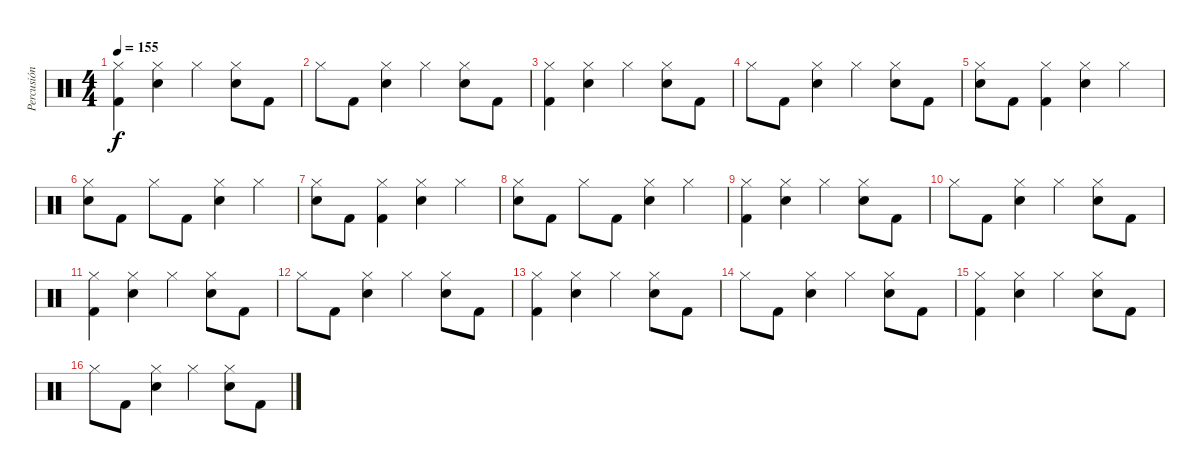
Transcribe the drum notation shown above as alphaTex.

\track ("Percusión" "Percusión") {instrument percussion}
\staff {score}
\articulation defaults
\ts (4 4)
\tempo 155
\clef neutral
\ks c
("Hi-Hat (closed)" "Kick (hit) 2").4{dy f} ("Hi-Hat (closed)" "Electric Snare (hit)").4 "Hi-Hat (closed)".4 ("Hi-Hat (closed)" "Electric Snare (hit)").8 "Kick (hit) 2".8 |
"Hi-Hat (closed)".8 "Kick (hit) 2".8 ("Hi-Hat (closed)" "Electric Snare (hit)").4 "Hi-Hat (closed)".4 ("Hi-Hat (closed)" "Electric Snare (hit)").8 "Kick (hit) 2".8 |
("Hi-Hat (closed)" "Kick (hit) 2").4 ("Hi-Hat (closed)" "Electric Snare (hit)").4 "Hi-Hat (closed)".4 ("Hi-Hat (closed)" "Electric Snare (hit)").8 "Kick (hit) 2".8 |
"Hi-Hat (closed)".8 "Kick (hit) 2".8 ("Hi-Hat (closed)" "Electric Snare (hit)").4 "Hi-Hat (closed)".4 ("Hi-Hat (closed)" "Electric Snare (hit)").8 "Kick (hit) 2".8 |
("Hi-Hat (closed)" "Electric Snare (hit)").8 "Kick (hit) 2".8 ("Hi-Hat (closed)" "Kick (hit) 2").4 ("Hi-Hat (closed)" "Electric Snare (hit)").4 "Hi-Hat (closed)".4 |
("Hi-Hat (closed)" "Electric Snare (hit)").8 "Kick (hit) 2".8 "Hi-Hat (closed)".8 "Kick (hit) 2".8 ("Hi-Hat (closed)" "Electric Snare (hit)").4 "Hi-Hat (closed)".4 |
("Hi-Hat (closed)" "Electric Snare (hit)").8 "Kick (hit) 2".8 ("Hi-Hat (closed)" "Kick (hit) 2").4 ("Hi-Hat (closed)" "Electric Snare (hit)").4 "Hi-Hat (closed)".4 |
("Hi-Hat (closed)" "Electric Snare (hit)").8 "Kick (hit) 2".8 "Hi-Hat (closed)".8 "Kick (hit) 2".8 ("Hi-Hat (closed)" "Electric Snare (hit)").4 "Hi-Hat (closed)".4 |
("Hi-Hat (closed)" "Kick (hit) 2").4 ("Hi-Hat (closed)" "Electric Snare (hit)").4 "Hi-Hat (closed)".4 ("Hi-Hat (closed)" "Electric Snare (hit)").8 "Kick (hit) 2".8 |
"Hi-Hat (closed)".8 "Kick (hit) 2".8 ("Hi-Hat (closed)" "Electric Snare (hit)").4 "Hi-Hat (closed)".4 ("Hi-Hat (closed)" "Electric Snare (hit)").8 "Kick (hit) 2".8 |
("Hi-Hat (closed)" "Kick (hit) 2").4 ("Hi-Hat (closed)" "Electric Snare (hit)").4 "Hi-Hat (closed)".4 ("Hi-Hat (closed)" "Electric Snare (hit)").8 "Kick (hit) 2".8 |
"Hi-Hat (closed)".8 "Kick (hit) 2".8 ("Hi-Hat (closed)" "Electric Snare (hit)").4 "Hi-Hat (closed)".4 ("Hi-Hat (closed)" "Electric Snare (hit)").8 "Kick (hit) 2".8 |
("Hi-Hat (closed)" "Kick (hit) 2").4 ("Hi-Hat (closed)" "Electric Snare (hit)").4 "Hi-Hat (closed)".4 ("Hi-Hat (closed)" "Electric Snare (hit)").8 "Kick (hit) 2".8 |
"Hi-Hat (closed)".8 "Kick (hit) 2".8 ("Hi-Hat (closed)" "Electric Snare (hit)").4 "Hi-Hat (closed)".4 ("Hi-Hat (closed)" "Electric Snare (hit)").8 "Kick (hit) 2".8 |
("Hi-Hat (closed)" "Kick (hit) 2").4 ("Hi-Hat (closed)" "Electric Snare (hit)").4 "Hi-Hat (closed)".4 ("Hi-Hat (closed)" "Electric Snare (hit)").8 "Kick (hit) 2".8 |
"Hi-Hat (closed)".8 "Kick (hit) 2".8 ("Hi-Hat (closed)" "Electric Snare (hit)").4 "Hi-Hat (closed)".4 ("Hi-Hat (closed)" "Electric Snare (hit)").8 "Kick (hit) 2".8
